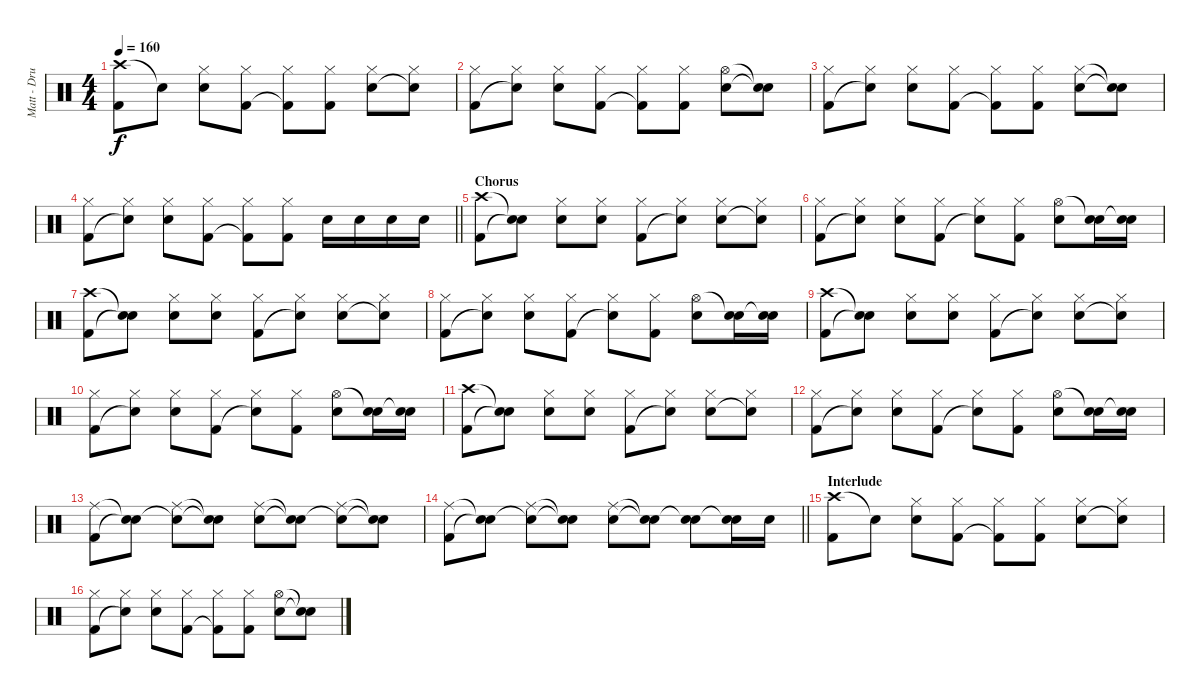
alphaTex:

\track ("Matt - Drums" "Matt - Dru") {instrument percussion}
\staff {score}
\articulation defaults
\ts (4 4)
\tempo 160
\clef neutral
\ks c
("Crash high (hit)" "Kick (hit) 2").8{dy f} "Snare (hit)"{t}.8 ("Hi-Hat (closed)" "Snare (hit) 2").8 ("Hi-Hat (closed)" "Kick (hit) 2").8 ("Hi-Hat (closed)" "Kick (hit) 2"{t}).8 ("Hi-Hat (closed)" "Kick (hit) 2").8 ("Hi-Hat (closed)" "Snare (hit) 2").8 ("Hi-Hat (closed)" "Snare (hit)"{t}).8 |
("Hi-Hat (closed)" "Kick (hit) 2").8 ("Hi-Hat (closed)" "Snare (hit)"{t}).8 ("Hi-Hat (closed)" "Snare (hit) 2").8 ("Hi-Hat (closed)" "Kick (hit) 2").8 ("Hi-Hat (closed)" "Kick (hit) 2"{t}).8 ("Hi-Hat (closed)" "Kick (hit) 2").8 ("Hi-Hat (open)" "Snare (hit) 2").8 ("Snare (hit)"{t} "Snare (hit)"{t}).8 |
("Hi-Hat (closed)" "Kick (hit) 2").8 ("Hi-Hat (closed)" "Snare (hit)"{t}).8 ("Hi-Hat (closed)" "Snare (hit) 2").8 ("Hi-Hat (closed)" "Kick (hit) 2").8 ("Hi-Hat (closed)" "Kick (hit) 2"{t}).8 ("Hi-Hat (closed)" "Kick (hit) 2").8 ("Hi-Hat (closed)" "Snare (hit) 2").8 ("Snare (hit)"{t} "Snare (hit)"{t}).8 |
\barLineRight lightlight
("Hi-Hat (closed)" "Kick (hit) 2").8 ("Hi-Hat (closed)" "Snare (hit)"{t}).8 ("Hi-Hat (closed)" "Snare (hit) 2").8 ("Hi-Hat (closed)" "Kick (hit) 2").8 ("Hi-Hat (closed)" "Kick (hit) 2"{t}).8 ("Hi-Hat (closed)" "Kick (hit) 2").8 "Snare (hit) 2".16 "Snare (hit) 2".16 "Snare (hit) 2".16 "Snare (hit) 2".16 |
\section ("" "Chorus")
("Crash high (hit)" "Kick (hit) 2").8 ("Snare (hit)"{t} "Snare (hit)"{t}).8 ("Hi-Hat (closed)" "Snare (hit) 2").8 ("Hi-Hat (closed)" "Snare (hit) 2").8 ("Hi-Hat (closed)" "Kick (hit) 2").8 ("Hi-Hat (closed)" "Snare (hit)"{t}).8 ("Hi-Hat (closed)" "Snare (hit) 2").8 ("Hi-Hat (closed)" "Snare (hit)"{t}).8 |
("Hi-Hat (closed)" "Kick (hit) 2").8 ("Hi-Hat (closed)" "Snare (hit)"{t}).8 ("Hi-Hat (closed)" "Snare (hit) 2").8 ("Hi-Hat (closed)" "Kick (hit) 2").8 ("Hi-Hat (closed)" "Snare (hit)"{t}).8 ("Hi-Hat (closed)" "Kick (hit) 2").8 ("Hi-Hat (open)" "Snare (hit) 2").8 ("Snare (hit)"{t} "Snare (hit) 2").16 ("Snare (hit)"{t} "Snare (hit) 2").16 |
("Crash high (hit)" "Kick (hit) 2").8 ("Snare (hit)"{t} "Snare (hit)"{t}).8 ("Hi-Hat (closed)" "Snare (hit) 2").8 ("Hi-Hat (closed)" "Snare (hit) 2").8 ("Hi-Hat (closed)" "Kick (hit) 2").8 ("Hi-Hat (closed)" "Snare (hit)"{t}).8 ("Hi-Hat (closed)" "Snare (hit) 2").8 ("Hi-Hat (closed)" "Snare (hit)"{t}).8 |
("Hi-Hat (closed)" "Kick (hit) 2").8 ("Hi-Hat (closed)" "Snare (hit)"{t}).8 ("Hi-Hat (closed)" "Snare (hit) 2").8 ("Hi-Hat (closed)" "Kick (hit) 2").8 ("Hi-Hat (closed)" "Snare (hit)"{t}).8 ("Hi-Hat (closed)" "Kick (hit) 2").8 ("Hi-Hat (open)" "Snare (hit) 2").8 ("Snare (hit)"{t} "Snare (hit) 2").16 ("Snare (hit)"{t} "Snare (hit) 2").16 |
("Crash high (hit)" "Kick (hit) 2").8 ("Snare (hit)"{t} "Snare (hit)"{t}).8 ("Hi-Hat (closed)" "Snare (hit) 2").8 ("Hi-Hat (closed)" "Snare (hit) 2").8 ("Hi-Hat (closed)" "Kick (hit) 2").8 ("Hi-Hat (closed)" "Snare (hit)"{t}).8 ("Hi-Hat (closed)" "Snare (hit) 2").8 ("Hi-Hat (closed)" "Snare (hit)"{t}).8 |
("Hi-Hat (closed)" "Kick (hit) 2").8 ("Hi-Hat (closed)" "Snare (hit)"{t}).8 ("Hi-Hat (closed)" "Snare (hit) 2").8 ("Hi-Hat (closed)" "Kick (hit) 2").8 ("Hi-Hat (closed)" "Snare (hit)"{t}).8 ("Hi-Hat (closed)" "Kick (hit) 2").8 ("Hi-Hat (open)" "Snare (hit) 2").8 ("Snare (hit)"{t} "Snare (hit) 2").16 ("Snare (hit)"{t} "Snare (hit) 2").16 |
("Crash high (hit)" "Kick (hit) 2").8 ("Snare (hit)"{t} "Snare (hit)"{t}).8 ("Hi-Hat (closed)" "Snare (hit) 2").8 ("Hi-Hat (closed)" "Snare (hit) 2").8 ("Hi-Hat (closed)" "Kick (hit) 2").8 ("Hi-Hat (closed)" "Snare (hit)"{t}).8 ("Hi-Hat (closed)" "Snare (hit) 2").8 ("Hi-Hat (closed)" "Snare (hit)"{t}).8 |
("Hi-Hat (closed)" "Kick (hit) 2").8 ("Hi-Hat (closed)" "Snare (hit)"{t}).8 ("Hi-Hat (closed)" "Snare (hit) 2").8 ("Hi-Hat (closed)" "Kick (hit) 2").8 ("Hi-Hat (closed)" "Snare (hit)"{t}).8 ("Hi-Hat (closed)" "Kick (hit) 2").8 ("Hi-Hat (open)" "Snare (hit) 2").8 ("Snare (hit)"{t} "Snare (hit) 2").16 ("Snare (hit)"{t} "Snare (hit) 2").16 |
("Ride (middle)" "Kick (hit) 2").8 ("Snare (hit)"{t} "Snare (hit)"{t}).8 ("Ride (middle)" "Snare (hit)"{t}).8 ("Snare (hit)"{t} "Snare (hit)"{t}).8 ("Ride (middle)" "Snare (hit) 2").8 ("Snare (hit)"{t} "Snare (hit)"{t}).8 ("Ride (middle)" "Snare (hit)"{t}).8 ("Snare (hit)"{t} "Snare (hit)"{t}).8 |
\barLineRight lightlight
("Ride (middle)" "Kick (hit) 2").8 ("Snare (hit)"{t} "Snare (hit)"{t}).8 ("Ride (middle)" "Snare (hit)"{t}).8 ("Snare (hit)"{t} "Snare (hit)"{t}).8 ("Ride (middle)" "Snare (hit) 2").8 ("Snare (hit)"{t} "Snare (hit)"{t}).8 ("Snare (hit)"{t} "Snare (hit) 2").8 ("Snare (hit)"{t} "Snare (hit) 2").16 "Snare (hit) 2".16 |
\section ("" "Interlude")
("Crash high (hit)" "Kick (hit) 2").8 "Snare (hit)"{t}.8 ("Hi-Hat (closed)" "Snare (hit) 2").8 ("Hi-Hat (closed)" "Kick (hit) 2").8 ("Hi-Hat (closed)" "Kick (hit) 2"{t}).8 ("Hi-Hat (closed)" "Kick (hit) 2").8 ("Hi-Hat (closed)" "Snare (hit) 2").8 ("Hi-Hat (closed)" "Snare (hit)"{t}).8 |
("Hi-Hat (closed)" "Kick (hit) 2").8 ("Hi-Hat (closed)" "Snare (hit)"{t}).8 ("Hi-Hat (closed)" "Snare (hit) 2").8 ("Hi-Hat (closed)" "Kick (hit) 2").8 ("Hi-Hat (closed)" "Kick (hit) 2"{t}).8 ("Hi-Hat (closed)" "Kick (hit) 2").8 ("Hi-Hat (open)" "Snare (hit) 2").8 ("Snare (hit)"{t} "Snare (hit)"{t}).8
